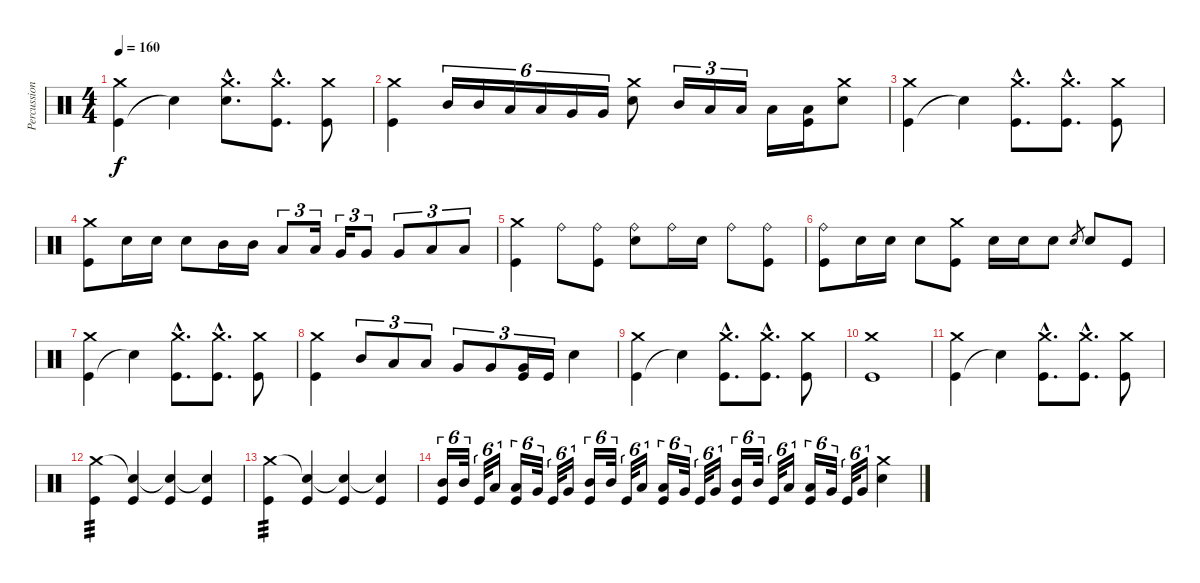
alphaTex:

\track ("Percussions" "Percussion") {instrument percussion}
\staff {score}
\articulation defaults
\ts (4 4)
\tempo 160
\clef neutral
\ks c
("Kick (hit)" "Crash medium (hit)").4{dy f} "Snare (hit)"{t}.4 ("Electric Snare (hit)"{hac} "Crash medium (hit)"{hac}).8{d} ("Kick (hit)"{hac} "Crash medium (hit)"{hac}).8{d} ("Kick (hit)" "Crash medium (hit)").8 |
("Kick (hit)" "Crash medium (hit)").4 "Mid Tom (hit)".16{tu (6 4)} "Mid Tom (hit)".16{tu (6 4)} "Low Tom (hit)".16{tu (6 4)} "Low Tom (hit)".16{tu (6 4)} "Very Low Tom (hit)".16{tu (6 4)} "Very Low Tom (hit)".16{tu (6 4)} ("Electric Snare (hit)" "Crash medium (hit)").8 "Mid Tom (hit)".16{tu (3 2)} "Low Tom (hit)".16{tu (3 2)} "Low Tom (hit)".16{tu (3 2)} "Low Floor Tom (hit)".16 ("Kick (hit)" "Low Floor Tom (hit)").16 ("Electric Snare (hit)" "Crash medium (hit)").8 |
("Kick (hit)" "Crash medium (hit)").4 "Snare (hit)"{t}.4 ("Kick (hit)"{hac} "Crash medium (hit)"{hac}).8{d} ("Kick (hit)"{hac} "Crash medium (hit)"{hac}).8{d} ("Kick (hit)" "Crash medium (hit)").8 |
("Kick (hit)" "Crash medium (hit)").8 "Electric Snare (hit)".16 "Electric Snare (hit)".16 "Electric Snare (hit)".8 "Mid Tom (hit)".16 "Mid Tom (hit)".16 "Low Tom (hit)".8{tu (3 2)} "Low Tom (hit)".16{tu (3 2)} "Very Low Tom (hit)".16{tu (3 2)} "Very Low Tom (hit)".8{tu (3 2)} "Very Low Tom (hit)".8{tu (3 2)} "Low Floor Tom (hit)".8{tu (3 2)} "Low Floor Tom (hit)".8{tu (3 2)} |
("Kick (hit)" "Crash medium (hit)").4 "Ride (bell)".8 ("Kick (hit)" "Ride (bell)").8 ("Electric Snare (hit)" "Ride (bell)").8 "Ride (bell)".16 "Electric Snare (hit)".16 "Ride (bell)".8 ("Kick (hit)" "Ride (bell)").8 |
("Kick (hit)" "Ride (bell)").8 "Electric Snare (hit)".16 "Electric Snare (hit)".16 "Electric Snare (hit)".8 ("Kick (hit)" "Crash medium (hit)").8 "Electric Snare (hit)".16 "Electric Snare (hit)".16 "Electric Snare (hit)".8 "Electric Snare (hit)".8{gr} "Electric Snare (hit)".8 "Kick (hit)".8 |
("Kick (hit)" "Crash medium (hit)").4 "Snare (hit)"{t}.4 ("Kick (hit)"{hac} "Crash medium (hit)"{hac}).8{d} ("Kick (hit)"{hac} "Crash medium (hit)"{hac}).8{d} ("Kick (hit)" "Crash medium (hit)").8 |
("Kick (hit)" "Crash medium (hit)").4 "Mid Tom (hit)".8{tu (3 2)} "Low Tom (hit)".8{tu (3 2)} "Low Tom (hit)".8{tu (3 2)} "Very Low Tom (hit)".8{tu (3 2)} "Very Low Tom (hit)".8{tu (3 2)} ("Kick (hit)" "Very Low Tom (hit)").16{tu (3 2)} "Kick (hit)".16{tu (3 2)} "Electric Snare (hit)".4 |
("Kick (hit)" "Crash medium (hit)").4 "Snare (hit)"{t}.4 ("Kick (hit)"{hac} "Crash medium (hit)"{hac}).8{d} ("Kick (hit)"{hac} "Crash medium (hit)"{hac}).8{d} ("Kick (hit)" "Crash medium (hit)").8 |
("Kick (hit)" "Crash medium (hit)").1 |
("Kick (hit)" "Crash medium (hit)").4 "Snare (hit)"{t}.4 ("Kick (hit)"{hac} "Crash medium (hit)"{hac}).8{d} ("Kick (hit)"{hac} "Crash medium (hit)"{hac}).8{d} ("Kick (hit)" "Crash medium (hit)").8 |
("Kick (hit)" "Crash medium (hit)").4{tp 3} ("Kick (hit)" "Snare (hit)"{t}).4 ("Kick (hit)" "Snare (hit)"{t}).4 ("Kick (hit)" "Snare (hit)"{t}).4 |
("Kick (hit)" "Crash medium (hit)").4{tp 3} ("Kick (hit)" "Snare (hit)"{t}).4 ("Kick (hit)" "Snare (hit)"{t}).4 ("Kick (hit)" "Snare (hit)"{t}).4 |
("Kick (hit)" "Mid Tom (hit)").16{tu (6 4)} "Mid Tom (hit)".32{tu (6 4)} "Kick (hit)".32{tu (6 4)} "Low Tom (hit)".16{tu (6 4)} ("Kick (hit)" "Low Tom (hit)").16{tu (6 4)} "Very Low Tom (hit)".32{tu (6 4)} "Kick (hit)".32{tu (6 4)} "Very Low Tom (hit)".16{tu (6 4)} ("Kick (hit)" "Mid Tom (hit)").16{tu (6 4)} "Mid Tom (hit)".32{tu (6 4)} "Kick (hit)".32{tu (6 4)} "Low Tom (hit)".16{tu (6 4)} ("Kick (hit)" "Low Tom (hit)").16{tu (6 4)} "Very Low Tom (hit)".32{tu (6 4)} "Kick (hit)".32{tu (6 4)} "Very Low Tom (hit)".16{tu (6 4)} ("Kick (hit)" "Mid Tom (hit)").16{tu (6 4)} "Mid Tom (hit)".32{tu (6 4)} "Kick (hit)".32{tu (6 4)} "Low Tom (hit)".16{tu (6 4)} ("Kick (hit)" "Low Tom (hit)").16{tu (6 4)} "Very Low Tom (hit)".32{tu (6 4)} "Kick (hit)".32{tu (6 4)} "Very Low Tom (hit)".16{tu (6 4)} ("Electric Snare (hit)" "Crash medium (hit)").4
